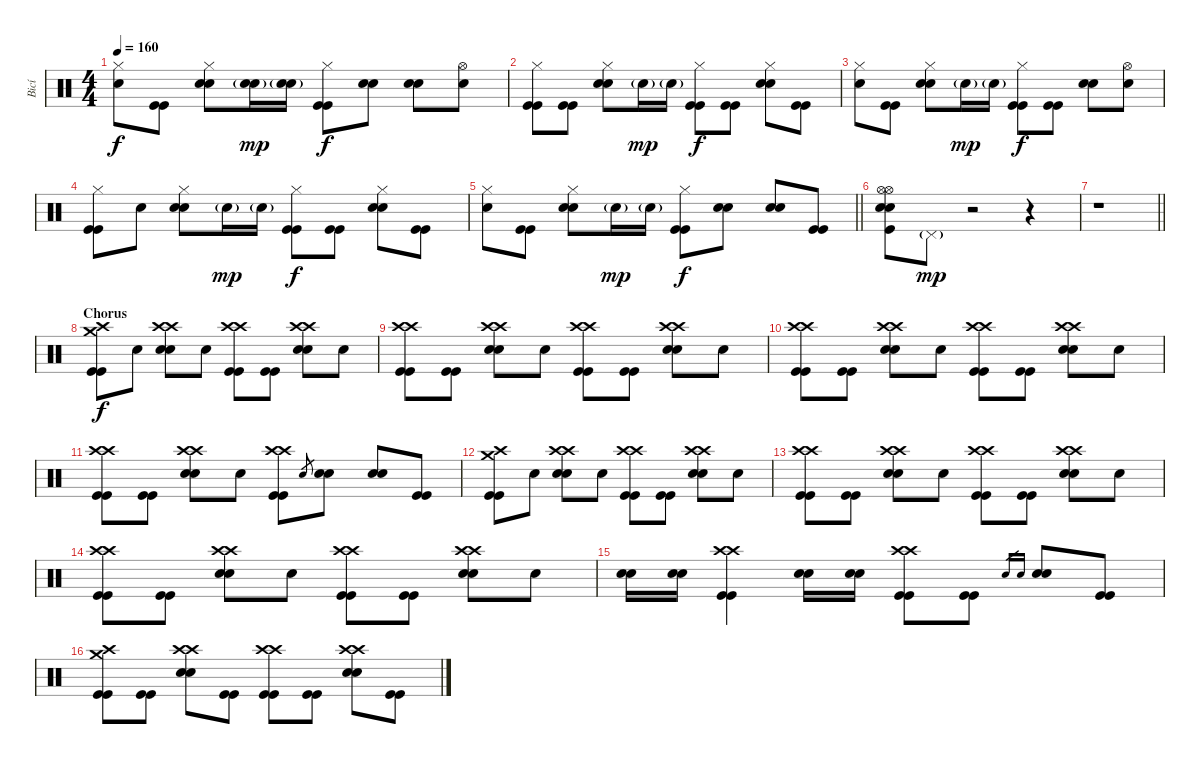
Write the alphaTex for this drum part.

\track ("Bicí" "Bicí") {instrument percussion}
\staff {score}
\articulation defaults
\ts (4 4)
\tempo 160
\clef neutral
\ks c
("Hi-Hat (closed)" "Snare (hit)").8{dy f} ("Kick (hit)" "Kick (hit)").8 ("Hi-Hat (closed)" "Electric Snare (hit)" "Electric Snare (hit)").8 ("Electric Snare (hit)"{g} "Electric Snare (hit)"{g}).16{dy mp} ("Electric Snare (hit)"{g} "Electric Snare (hit)"{g}).16 ("Hi-Hat (closed)" "Kick (hit)" "Kick (hit)").8{dy f} ("Electric Snare (hit)" "Electric Snare (hit)").8 ("Electric Snare (hit)" "Electric Snare (hit)").8 ("Hi-Hat (open)" "Snare (hit)").8 |
("Hi-Hat (closed)" "Kick (hit)" "Kick (hit)").8 ("Kick (hit)" "Kick (hit)").8 ("Hi-Hat (closed)" "Electric Snare (hit)" "Electric Snare (hit)").8 "Electric Snare (hit)"{g}.16{dy mp} "Electric Snare (hit)"{g}.16 ("Hi-Hat (closed)" "Kick (hit)" "Kick (hit)").8{dy f} ("Kick (hit)" "Kick (hit)").8 ("Hi-Hat (closed)" "Electric Snare (hit)" "Electric Snare (hit)").8 ("Kick (hit)" "Kick (hit)").8 |
("Hi-Hat (closed)" "Snare (hit)").8 ("Kick (hit)" "Kick (hit)").8 ("Hi-Hat (closed)" "Electric Snare (hit)" "Electric Snare (hit)").8 "Electric Snare (hit)"{g}.16{dy mp} "Electric Snare (hit)"{g}.16 ("Hi-Hat (closed)" "Kick (hit)" "Kick (hit)").8{dy f} ("Kick (hit)" "Kick (hit)").8 ("Electric Snare (hit)" "Electric Snare (hit)").8 ("Hi-Hat (open)" "Snare (hit)").8 |
("Hi-Hat (closed)" "Kick (hit)" "Kick (hit)").8 "Snare (hit)".8 ("Hi-Hat (closed)" "Electric Snare (hit)" "Electric Snare (hit)").8 "Electric Snare (hit)"{g}.16{dy mp} "Electric Snare (hit)"{g}.16 ("Hi-Hat (closed)" "Kick (hit)" "Kick (hit)").8{dy f} ("Kick (hit)" "Kick (hit)").8 ("Hi-Hat (closed)" "Electric Snare (hit)" "Electric Snare (hit)").8 ("Kick (hit)" "Kick (hit)").8 |
\barLineRight lightlight
("Hi-Hat (closed)" "Snare (hit)").8 ("Kick (hit)" "Kick (hit)").8 ("Hi-Hat (closed)" "Electric Snare (hit)" "Electric Snare (hit)").8 "Electric Snare (hit)"{g}.16{dy mp} "Electric Snare (hit)"{g}.16 ("Hi-Hat (closed)" "Kick (hit)" "Kick (hit)").8{dy f} ("Electric Snare (hit)" "Electric Snare (hit)").8 ("Electric Snare (hit)" "Electric Snare (hit)").8 ("Kick (hit)" "Kick (hit)").8 |
("Hi-Hat (open)" "Hi-Hat (open)" "Kick (hit)" "Electric Snare (hit)" "Electric Snare (hit)").8 "Pedal Hi-Hat (hit)"{g}.8{dy mp} r.2 r.4 |
\barLineRight lightlight
r.1 |
\section ("" "Chorus")
("Crash medium (hit)" "Crash high (hit)" "Kick (hit)" "Kick (hit)").8{dy f} "Snare (hit)".8 ("Crash high (hit)" "Crash high (hit)" "Electric Snare (hit)" "Electric Snare (hit)").8 "Snare (hit)".8 ("Crash high (hit)" "Crash high (hit)" "Kick (hit)" "Kick (hit)").8 ("Kick (hit)" "Kick (hit)").8 ("Crash high (hit)" "Crash high (hit)" "Electric Snare (hit)" "Electric Snare (hit)").8 "Snare (hit)".8 |
("Crash high (hit)" "Crash high (hit)" "Kick (hit)" "Kick (hit)").8 ("Kick (hit)" "Kick (hit)").8 ("Crash high (hit)" "Crash high (hit)" "Electric Snare (hit)" "Electric Snare (hit)").8 "Snare (hit)".8 ("Crash high (hit)" "Crash high (hit)" "Kick (hit)" "Kick (hit)").8 ("Kick (hit)" "Kick (hit)").8 ("Crash high (hit)" "Crash high (hit)" "Electric Snare (hit)" "Electric Snare (hit)").8 "Snare (hit)".8 |
("Crash high (hit)" "Crash high (hit)" "Kick (hit)" "Kick (hit)").8 ("Kick (hit)" "Kick (hit)").8 ("Crash high (hit)" "Crash high (hit)" "Electric Snare (hit)" "Electric Snare (hit)").8 "Snare (hit)".8 ("Crash high (hit)" "Crash high (hit)" "Kick (hit)" "Kick (hit)").8 ("Kick (hit)" "Kick (hit)").8 ("Crash high (hit)" "Crash high (hit)" "Electric Snare (hit)" "Electric Snare (hit)").8 "Snare (hit)".8 |
("Crash high (hit)" "Crash high (hit)" "Kick (hit)" "Kick (hit)").8 ("Kick (hit)" "Kick (hit)").8 ("Crash high (hit)" "Crash high (hit)" "Electric Snare (hit)" "Electric Snare (hit)").8 "Snare (hit)".8 ("Crash high (hit)" "Crash high (hit)" "Kick (hit)" "Kick (hit)").8 "Electric Snare (hit)".8{gr} ("Electric Snare (hit)" "Electric Snare (hit)").8 ("Electric Snare (hit)" "Electric Snare (hit)").8 ("Kick (hit)" "Kick (hit)").8 |
("Crash medium (hit)" "Crash high (hit)" "Kick (hit)" "Kick (hit)").8 "Snare (hit)".8 ("Crash high (hit)" "Crash high (hit)" "Electric Snare (hit)" "Electric Snare (hit)").8 "Snare (hit)".8 ("Crash high (hit)" "Crash high (hit)" "Kick (hit)" "Kick (hit)").8 ("Kick (hit)" "Kick (hit)").8 ("Crash high (hit)" "Crash high (hit)" "Electric Snare (hit)" "Electric Snare (hit)").8 "Snare (hit)".8 |
("Crash high (hit)" "Crash high (hit)" "Kick (hit)" "Kick (hit)").8 ("Kick (hit)" "Kick (hit)").8 ("Crash high (hit)" "Crash high (hit)" "Electric Snare (hit)" "Electric Snare (hit)").8 "Snare (hit)".8 ("Crash high (hit)" "Crash high (hit)" "Kick (hit)" "Kick (hit)").8 ("Kick (hit)" "Kick (hit)").8 ("Crash high (hit)" "Crash high (hit)" "Electric Snare (hit)" "Electric Snare (hit)").8 "Snare (hit)".8 |
("Crash high (hit)" "Crash high (hit)" "Kick (hit)" "Kick (hit)").8 ("Kick (hit)" "Kick (hit)").8 ("Crash high (hit)" "Crash high (hit)" "Electric Snare (hit)" "Electric Snare (hit)").8 "Snare (hit)".8 ("Crash high (hit)" "Crash high (hit)" "Kick (hit)" "Kick (hit)").8 ("Kick (hit)" "Kick (hit)").8 ("Crash high (hit)" "Crash high (hit)" "Electric Snare (hit)" "Electric Snare (hit)").8 "Snare (hit)".8 |
("Electric Snare (hit)" "Electric Snare (hit)").16 ("Electric Snare (hit)" "Electric Snare (hit)").16 ("Crash high (hit)" "Crash high (hit)" "Kick (hit)" "Kick (hit)").4 ("Electric Snare (hit)" "Electric Snare (hit)").16 ("Electric Snare (hit)" "Electric Snare (hit)").16 ("Crash high (hit)" "Crash high (hit)" "Kick (hit)" "Kick (hit)").8 ("Kick (hit)" "Kick (hit)").8 "Electric Snare (hit)".16{gr} "Electric Snare (hit)".16{gr} ("Electric Snare (hit)" "Electric Snare (hit)").8 ("Kick (hit)" "Kick (hit)").8 |
("Crash medium (hit)" "Crash high (hit)" "Kick (hit)" "Kick (hit)").8 ("Kick (hit)" "Kick (hit)").8 ("Crash high (hit)" "Crash high (hit)" "Electric Snare (hit)" "Electric Snare (hit)").8 ("Kick (hit)" "Kick (hit)").8 ("Crash high (hit)" "Crash high (hit)" "Kick (hit)" "Kick (hit)").8 ("Kick (hit)" "Kick (hit)").8 ("Crash high (hit)" "Crash high (hit)" "Electric Snare (hit)" "Electric Snare (hit)").8 ("Kick (hit)" "Kick (hit)").8
